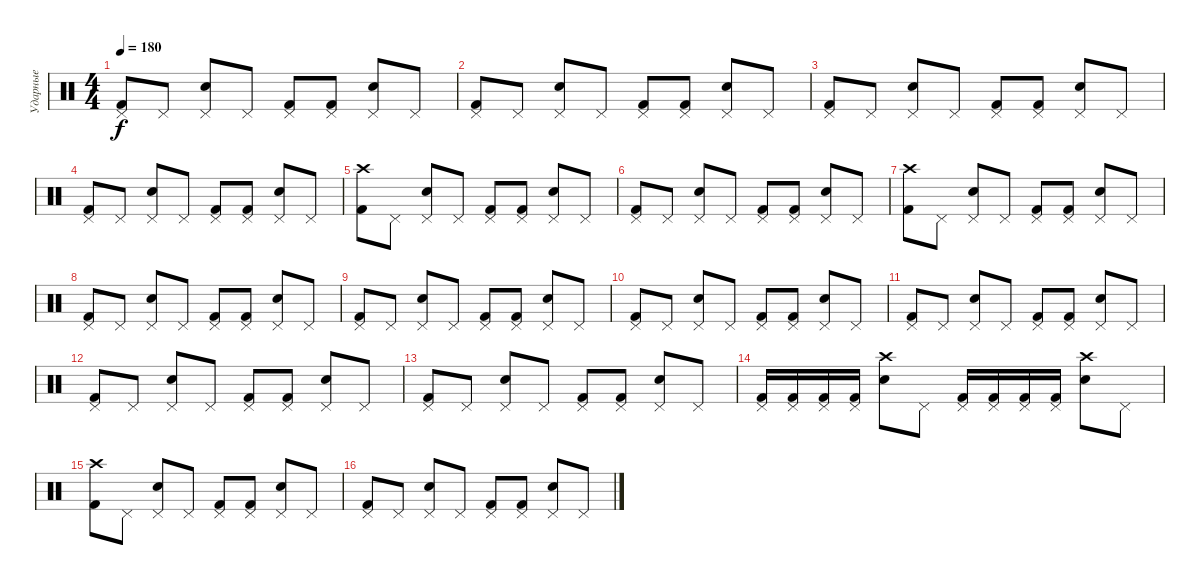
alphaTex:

\track ("Ударные" "Ударные") {instrument percussion}
\staff {score}
\articulation defaults
\ts (4 4)
\tempo 180
\clef neutral
\ks c
("Kick (hit) 2" "Pedal Hi-Hat (hit)").8{dy f} "Pedal Hi-Hat (hit)".8 ("Electric Snare (hit)" "Pedal Hi-Hat (hit)").8 "Pedal Hi-Hat (hit)".8 ("Pedal Hi-Hat (hit)" "Kick (hit) 2").8 ("Pedal Hi-Hat (hit)" "Kick (hit) 2").8 ("Electric Snare (hit)" "Pedal Hi-Hat (hit)").8 "Pedal Hi-Hat (hit)".8 |
("Kick (hit) 2" "Pedal Hi-Hat (hit)").8 "Pedal Hi-Hat (hit)".8 ("Electric Snare (hit)" "Pedal Hi-Hat (hit)").8 "Pedal Hi-Hat (hit)".8 ("Pedal Hi-Hat (hit)" "Kick (hit) 2").8 ("Pedal Hi-Hat (hit)" "Kick (hit) 2").8 ("Electric Snare (hit)" "Pedal Hi-Hat (hit)").8 "Pedal Hi-Hat (hit)".8 |
("Kick (hit) 2" "Pedal Hi-Hat (hit)").8 "Pedal Hi-Hat (hit)".8 ("Electric Snare (hit)" "Pedal Hi-Hat (hit)").8 "Pedal Hi-Hat (hit)".8 ("Pedal Hi-Hat (hit)" "Kick (hit) 2").8 ("Pedal Hi-Hat (hit)" "Kick (hit) 2").8 ("Electric Snare (hit)" "Pedal Hi-Hat (hit)").8 "Pedal Hi-Hat (hit)".8 |
("Kick (hit) 2" "Pedal Hi-Hat (hit)").8 "Pedal Hi-Hat (hit)".8 ("Electric Snare (hit)" "Pedal Hi-Hat (hit)").8 "Pedal Hi-Hat (hit)".8 ("Pedal Hi-Hat (hit)" "Kick (hit) 2").8 ("Pedal Hi-Hat (hit)" "Kick (hit) 2").8 ("Electric Snare (hit)" "Pedal Hi-Hat (hit)").8 "Pedal Hi-Hat (hit)".8 |
("Kick (hit) 2" "Crash high (hit)").8 "Pedal Hi-Hat (hit)".8 ("Electric Snare (hit)" "Pedal Hi-Hat (hit)").8 "Pedal Hi-Hat (hit)".8 ("Pedal Hi-Hat (hit)" "Kick (hit) 2").8 ("Pedal Hi-Hat (hit)" "Kick (hit) 2").8 ("Electric Snare (hit)" "Pedal Hi-Hat (hit)").8 "Pedal Hi-Hat (hit)".8 |
("Kick (hit) 2" "Pedal Hi-Hat (hit)").8 "Pedal Hi-Hat (hit)".8 ("Electric Snare (hit)" "Pedal Hi-Hat (hit)").8 "Pedal Hi-Hat (hit)".8 ("Pedal Hi-Hat (hit)" "Kick (hit) 2").8 ("Pedal Hi-Hat (hit)" "Kick (hit) 2").8 ("Electric Snare (hit)" "Pedal Hi-Hat (hit)").8 "Pedal Hi-Hat (hit)".8 |
("Kick (hit) 2" "Crash high (hit)").8 "Pedal Hi-Hat (hit)".8 ("Electric Snare (hit)" "Pedal Hi-Hat (hit)").8 "Pedal Hi-Hat (hit)".8 ("Pedal Hi-Hat (hit)" "Kick (hit) 2").8 ("Pedal Hi-Hat (hit)" "Kick (hit) 2").8 ("Electric Snare (hit)" "Pedal Hi-Hat (hit)").8 "Pedal Hi-Hat (hit)".8 |
("Kick (hit) 2" "Pedal Hi-Hat (hit)").8 "Pedal Hi-Hat (hit)".8 ("Electric Snare (hit)" "Pedal Hi-Hat (hit)").8 "Pedal Hi-Hat (hit)".8 ("Pedal Hi-Hat (hit)" "Kick (hit) 2").8 ("Pedal Hi-Hat (hit)" "Kick (hit) 2").8 ("Electric Snare (hit)" "Pedal Hi-Hat (hit)").8 "Pedal Hi-Hat (hit)".8 |
("Kick (hit) 2" "Pedal Hi-Hat (hit)").8 "Pedal Hi-Hat (hit)".8 ("Electric Snare (hit)" "Pedal Hi-Hat (hit)").8 "Pedal Hi-Hat (hit)".8 ("Pedal Hi-Hat (hit)" "Kick (hit) 2").8 ("Pedal Hi-Hat (hit)" "Kick (hit) 2").8 ("Electric Snare (hit)" "Pedal Hi-Hat (hit)").8 "Pedal Hi-Hat (hit)".8 |
("Kick (hit) 2" "Pedal Hi-Hat (hit)").8 "Pedal Hi-Hat (hit)".8 ("Electric Snare (hit)" "Pedal Hi-Hat (hit)").8 "Pedal Hi-Hat (hit)".8 ("Pedal Hi-Hat (hit)" "Kick (hit) 2").8 ("Pedal Hi-Hat (hit)" "Kick (hit) 2").8 ("Electric Snare (hit)" "Pedal Hi-Hat (hit)").8 "Pedal Hi-Hat (hit)".8 |
("Kick (hit) 2" "Pedal Hi-Hat (hit)").8 "Pedal Hi-Hat (hit)".8 ("Electric Snare (hit)" "Pedal Hi-Hat (hit)").8 "Pedal Hi-Hat (hit)".8 ("Pedal Hi-Hat (hit)" "Kick (hit) 2").8 ("Pedal Hi-Hat (hit)" "Kick (hit) 2").8 ("Electric Snare (hit)" "Pedal Hi-Hat (hit)").8 "Pedal Hi-Hat (hit)".8 |
("Kick (hit) 2" "Pedal Hi-Hat (hit)").8 "Pedal Hi-Hat (hit)".8 ("Electric Snare (hit)" "Pedal Hi-Hat (hit)").8 "Pedal Hi-Hat (hit)".8 ("Pedal Hi-Hat (hit)" "Kick (hit) 2").8 ("Pedal Hi-Hat (hit)" "Kick (hit) 2").8 ("Electric Snare (hit)" "Pedal Hi-Hat (hit)").8 "Pedal Hi-Hat (hit)".8 |
("Kick (hit) 2" "Pedal Hi-Hat (hit)").8 "Pedal Hi-Hat (hit)".8 ("Electric Snare (hit)" "Pedal Hi-Hat (hit)").8 "Pedal Hi-Hat (hit)".8 ("Pedal Hi-Hat (hit)" "Kick (hit) 2").8 ("Pedal Hi-Hat (hit)" "Kick (hit) 2").8 ("Electric Snare (hit)" "Pedal Hi-Hat (hit)").8 "Pedal Hi-Hat (hit)".8 |
("Kick (hit) 2" "Pedal Hi-Hat (hit)").16 ("Kick (hit) 2" "Pedal Hi-Hat (hit)").16 ("Kick (hit) 2" "Pedal Hi-Hat (hit)").16 ("Kick (hit) 2" "Pedal Hi-Hat (hit)").16 ("Electric Snare (hit)" "Crash high (hit)").8 "Pedal Hi-Hat (hit)".8 ("Kick (hit) 2" "Pedal Hi-Hat (hit)").16 ("Kick (hit) 2" "Pedal Hi-Hat (hit)").16 ("Kick (hit) 2" "Pedal Hi-Hat (hit)").16 ("Kick (hit) 2" "Pedal Hi-Hat (hit)").16 ("Electric Snare (hit)" "Crash high (hit)").8 "Pedal Hi-Hat (hit)".8 |
("Kick (hit) 2" "Crash high (hit)").8 "Pedal Hi-Hat (hit)".8 ("Electric Snare (hit)" "Pedal Hi-Hat (hit)").8 "Pedal Hi-Hat (hit)".8 ("Pedal Hi-Hat (hit)" "Kick (hit) 2").8 ("Pedal Hi-Hat (hit)" "Kick (hit) 2").8 ("Electric Snare (hit)" "Pedal Hi-Hat (hit)").8 "Pedal Hi-Hat (hit)".8 |
("Kick (hit) 2" "Pedal Hi-Hat (hit)").8 "Pedal Hi-Hat (hit)".8 ("Electric Snare (hit)" "Pedal Hi-Hat (hit)").8 "Pedal Hi-Hat (hit)".8 ("Pedal Hi-Hat (hit)" "Kick (hit) 2").8 ("Pedal Hi-Hat (hit)" "Kick (hit) 2").8 ("Electric Snare (hit)" "Pedal Hi-Hat (hit)").8 "Pedal Hi-Hat (hit)".8
